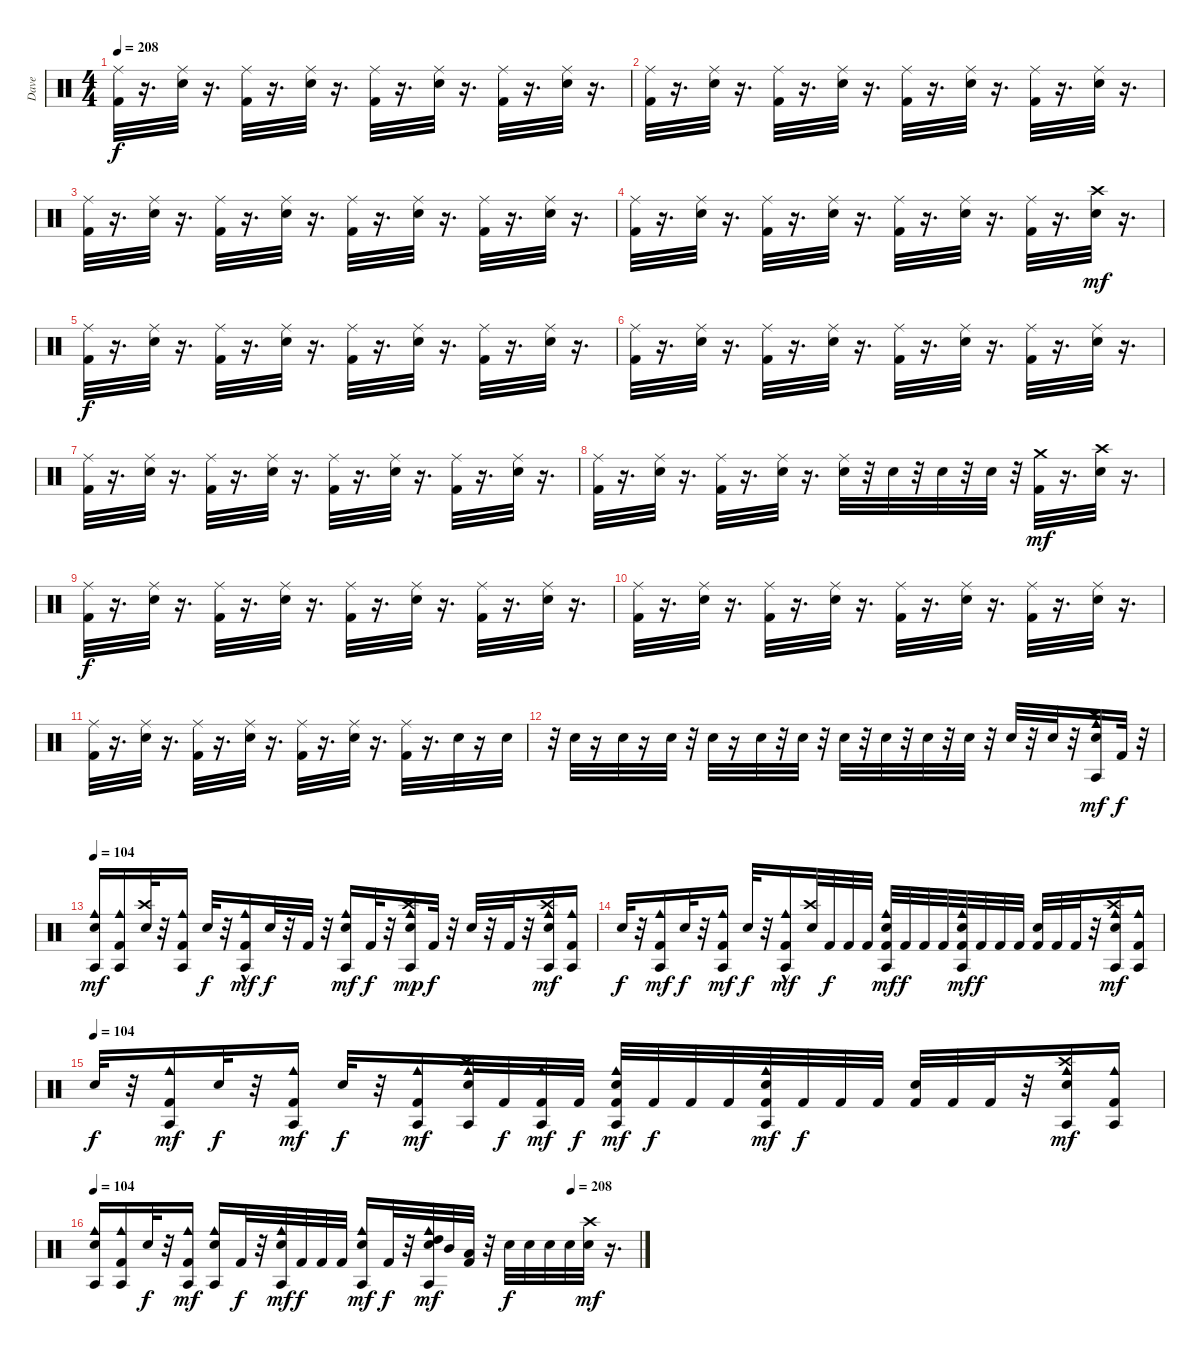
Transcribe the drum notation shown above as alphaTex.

\track ("Dave" "Dave") {instrument percussion}
\staff {score}
\articulation defaults
\ts (4 4)
\tempo 208
\clef neutral
\ks c
("Kick (hit) 2" "Ride (middle)").32{dy f} r.16{d} ("Snare (hit) 2" "Ride (middle)").32 r.16{d} ("Kick (hit) 2" "Ride (middle)").32 r.16{d} ("Snare (hit) 2" "Ride (middle)").32 r.16{d} ("Kick (hit) 2" "Ride (middle)").32 r.16{d} ("Snare (hit) 2" "Ride (middle)").32 r.16{d} ("Kick (hit) 2" "Ride (middle)").32 r.16{d} ("Snare (hit) 2" "Ride (middle)").32 r.16{d} |
("Kick (hit) 2" "Ride (middle)").32 r.16{d} ("Snare (hit) 2" "Ride (middle)").32 r.16{d} ("Kick (hit) 2" "Ride (middle)").32 r.16{d} ("Snare (hit) 2" "Ride (middle)").32 r.16{d} ("Kick (hit) 2" "Ride (middle)").32 r.16{d} ("Snare (hit) 2" "Ride (middle)").32 r.16{d} ("Kick (hit) 2" "Ride (middle)").32 r.16{d} ("Snare (hit) 2" "Ride (middle)").32 r.16{d} |
("Kick (hit) 2" "Ride (middle)").32 r.16{d} ("Snare (hit) 2" "Ride (middle)").32 r.16{d} ("Kick (hit) 2" "Ride (middle)").32 r.16{d} ("Snare (hit) 2" "Ride (middle)").32 r.16{d} ("Kick (hit) 2" "Ride (middle)").32 r.16{d} ("Snare (hit) 2" "Ride (middle)").32 r.16{d} ("Kick (hit) 2" "Ride (middle)").32 r.16{d} ("Snare (hit) 2" "Ride (middle)").32 r.16{d} |
("Kick (hit) 2" "Ride (middle)").32 r.16{d} ("Snare (hit) 2" "Ride (middle)").32 r.16{d} ("Kick (hit) 2" "Ride (middle)").32 r.16{d} ("Snare (hit) 2" "Ride (middle)").32 r.16{d} ("Kick (hit) 2" "Ride (middle)").32 r.16{d} ("Snare (hit) 2" "Ride (middle)").32 r.16{d} ("Kick (hit) 2" "Ride (middle)").32 r.16{d} ("Snare (hit) 2" "Crash high (hit)").32{dy mf} r.16{d} |
("Kick (hit) 2" "Ride (middle)").32{dy f} r.16{d} ("Snare (hit) 2" "Ride (middle)").32 r.16{d} ("Kick (hit) 2" "Ride (middle)").32 r.16{d} ("Snare (hit) 2" "Ride (middle)").32 r.16{d} ("Kick (hit) 2" "Ride (middle)").32 r.16{d} ("Snare (hit) 2" "Ride (middle)").32 r.16{d} ("Kick (hit) 2" "Ride (middle)").32 r.16{d} ("Snare (hit) 2" "Ride (middle)").32 r.16{d} |
("Kick (hit) 2" "Ride (middle)").32 r.16{d} ("Snare (hit) 2" "Ride (middle)").32 r.16{d} ("Kick (hit) 2" "Ride (middle)").32 r.16{d} ("Snare (hit) 2" "Ride (middle)").32 r.16{d} ("Kick (hit) 2" "Ride (middle)").32 r.16{d} ("Snare (hit) 2" "Ride (middle)").32 r.16{d} ("Kick (hit) 2" "Ride (middle)").32 r.16{d} ("Snare (hit) 2" "Ride (middle)").32 r.16{d} |
("Kick (hit) 2" "Ride (middle)").32 r.16{d} ("Snare (hit) 2" "Ride (middle)").32 r.16{d} ("Kick (hit) 2" "Ride (middle)").32 r.16{d} ("Snare (hit) 2" "Ride (middle)").32 r.16{d} ("Kick (hit) 2" "Ride (middle)").32 r.16{d} ("Snare (hit) 2" "Ride (middle)").32 r.16{d} ("Kick (hit) 2" "Ride (middle)").32 r.16{d} ("Snare (hit) 2" "Ride (middle)").32 r.16{d} |
("Kick (hit) 2" "Ride (middle)").32 r.16{d} ("Snare (hit) 2" "Ride (middle)").32 r.16{d} ("Kick (hit) 2" "Ride (middle)").32 r.16{d} ("Snare (hit) 2" "Ride (middle)").32 r.16{d} ("Snare (hit) 2" "Ride (middle)").32 r.32 "Snare (hit) 2".32 r.32 "Snare (hit) 2".32 r.32 "Snare (hit) 2".32 r.32 ("Kick (hit) 2" "Crash medium (hit)").32{dy mf} r.16{d} ("Snare (hit) 2" "Crash high (hit)").32 r.16{d} |
("Kick (hit) 2" "Ride (middle)").32{dy f} r.16{d} ("Snare (hit) 2" "Ride (middle)").32 r.16{d} ("Kick (hit) 2" "Ride (middle)").32 r.16{d} ("Snare (hit) 2" "Ride (middle)").32 r.16{d} ("Kick (hit) 2" "Ride (middle)").32 r.16{d} ("Snare (hit) 2" "Ride (middle)").32 r.16{d} ("Kick (hit) 2" "Ride (middle)").32 r.16{d} ("Snare (hit) 2" "Ride (middle)").32 r.16{d} |
("Kick (hit) 2" "Ride (middle)").32 r.16{d} ("Snare (hit) 2" "Ride (middle)").32 r.16{d} ("Kick (hit) 2" "Ride (middle)").32 r.16{d} ("Snare (hit) 2" "Ride (middle)").32 r.16{d} ("Kick (hit) 2" "Ride (middle)").32 r.16{d} ("Snare (hit) 2" "Ride (middle)").32 r.16{d} ("Kick (hit) 2" "Ride (middle)").32 r.16{d} ("Snare (hit) 2" "Ride (middle)").32 r.16{d} |
("Kick (hit) 2" "Ride (middle)").32 r.16{d} ("Snare (hit) 2" "Ride (middle)").32 r.16{d} ("Kick (hit) 2" "Ride (middle)").32 r.16{d} ("Snare (hit) 2" "Ride (middle)").32 r.16{d} ("Kick (hit) 2" "Ride (middle)").32 r.16{d} ("Snare (hit) 2" "Ride (middle)").32 r.16{d} ("Kick (hit) 2" "Ride (middle)").32 r.16{d} "Snare (hit) 2".32 r.16 "Snare (hit) 2".32 |
r.32 "Snare (hit) 2".32 r.16 "Snare (hit) 2".32 r.16 "Snare (hit) 2".32 r.32 "Snare (hit) 2".32 r.16 "Snare (hit) 2".32 r.32 "Snare (hit) 2".32 r.32 "Snare (hit) 2".32 r.32 "Snare (hit) 2".32 r.32 "Snare (hit) 2".32 r.32 "Snare (hit) 2".32 r.32 "Snare (hit) 2".32 r.32 "Snare (hit) 2".32 r.32 ("Cowbell medium (hit)" "Agogo tow (hit)" "Snare (hit) 2" "Crash high (hit)").16{dy mf} "Kick (hit) 2".32{dy f} r.32 |
\tempo 104
("Cowbell medium (hit)" "Agogo tow (hit)" "Snare (hit) 2").16{dy mf} ("Cowbell medium (hit)" "Agogo tow (hit)" "Kick (hit) 2").16 ("Snare (hit) 2" "Crash high (hit)").32 r.32 ("Cowbell medium (hit)" "Agogo tow (hit)" "Kick (hit) 2").16 "Snare (hit) 2".32{dy f} r.32 ("Cowbell medium (hit)"{hac} "Agogo tow (hit)"{hac} "Kick (hit) 2").16{dy mf} "Snare (hit) 2".32{dy f} r.32 "Kick (hit) 2".32 r.32 ("Cowbell medium (hit)" "Agogo tow (hit)" "Snare (hit) 2").16{dy mf} "Kick (hit) 2".32{dy f} r.32 ("Cowbell medium (hit)" "Agogo tow (hit)" "Snare (hit) 2" "Crash high (hit)").16{dy mp} "Kick (hit) 2".32{dy f} r.32 "Snare (hit) 2".32 r.32 "Kick (hit) 2".32 r.32 ("Cowbell medium (hit)" "Agogo tow (hit)" "Snare (hit) 2" "Crash high (hit)").16{dy mf} ("Cowbell medium (hit)" "Agogo tow (hit)" "Kick (hit) 2").16 |
"Snare (hit) 2".32{dy f} r.32 ("Cowbell medium (hit)" "Agogo tow (hit)" "Kick (hit) 2").16{dy mf} "Snare (hit) 2".32{dy f} r.32 ("Cowbell medium (hit)" "Agogo tow (hit)" "Kick (hit) 2").16{dy mf} "Snare (hit) 2".32{dy f} r.32 ("Cowbell medium (hit)"{hac} "Agogo tow (hit)"{hac} "Kick (hit) 2").16{dy mf} ("Snare (hit) 2" "Crash high (hit)").32 "Kick (hit) 2".32{dy f} "Kick (hit) 2".32 "Kick (hit) 2".32 ("Cowbell medium (hit)" "Agogo tow (hit)" "Kick (hit) 2" "Snare (hit) 2").32{dy mf} "Kick (hit) 2".32{dy f} "Kick (hit) 2".32 "Kick (hit) 2".32 ("Cowbell medium (hit)" "Agogo tow (hit)" "Kick (hit) 2" "Snare (hit) 2").32{dy mf} "Kick (hit) 2".32{dy f} "Kick (hit) 2".32 "Kick (hit) 2".32 ("Kick (hit) 2" "Snare (hit) 2").32 "Kick (hit) 2".32 "Kick (hit) 2".32 r.32 ("Cowbell medium (hit)" "Agogo tow (hit)" "Snare (hit) 2" "Crash high (hit)").16{dy mf} ("Cowbell medium (hit)" "Agogo tow (hit)" "Kick (hit) 2").16 |
\tempo (104)
"Snare (hit) 2".32{dy f} r.32 ("Cowbell medium (hit)" "Agogo tow (hit)" "Kick (hit) 2").16{dy mf} "Snare (hit) 2".32{dy f} r.32 ("Cowbell medium (hit)" "Agogo tow (hit)" "Kick (hit) 2").16{dy mf} "Snare (hit) 2".32{dy f} r.32 ("Cowbell medium (hit)" "Agogo tow (hit)" "Kick (hit) 2").16{dy mf} ("Cowbell medium (hit)" "Agogo tow (hit)" "Snare (hit) 2" "Crash high (hit)").32 "Kick (hit) 2".32{dy f} ("Cowbell medium (hit)" "Agogo tow (hit)" "Kick (hit) 2").32{dy mf} "Kick (hit) 2".32{dy f} ("Cowbell medium (hit)" "Agogo tow (hit)" "Kick (hit) 2" "Snare (hit) 2").32{dy mf} "Kick (hit) 2".32{dy f} "Kick (hit) 2".32 "Kick (hit) 2".32 ("Cowbell medium (hit)" "Agogo tow (hit)" "Kick (hit) 2" "Snare (hit) 2").32{dy mf} "Kick (hit) 2".32{dy f} "Kick (hit) 2".32 "Kick (hit) 2".32 ("Kick (hit) 2" "Snare (hit) 2").32 "Kick (hit) 2".32 "Kick (hit) 2".32 r.32 ("Cowbell medium (hit)" "Agogo tow (hit)" "Snare (hit) 2" "Crash high (hit)").16{dy mf} ("Cowbell medium (hit)" "Agogo tow (hit)" "Kick (hit) 2").16 |
\tempo 104
\tempo (208 0.875)
("Cowbell medium (hit)" "Agogo tow (hit)" "Snare (hit) 2").16 ("Cowbell medium (hit)" "Agogo tow (hit)" "Kick (hit) 2").16 "Snare (hit) 2".32{dy f} r.32 ("Cowbell medium (hit)" "Agogo tow (hit)" "Kick (hit) 2").16{dy mf} ("Cowbell medium (hit)" "Agogo tow (hit)" "Snare (hit) 2").16 "Kick (hit) 2".32{dy f} r.32 ("Cowbell medium (hit)" "Agogo tow (hit)" "Snare (hit) 2").32{dy mf} "Kick (hit) 2".32{dy f} "Kick (hit) 2".32 "Kick (hit) 2".32 ("Cowbell medium (hit)" "Agogo tow (hit)" "Snare (hit) 2").16{dy mf} "Kick (hit) 2".32{dy f} r.32 ("Cowbell medium (hit)" "Agogo tow (hit)" "Snare (hit) 2" "High Tom (hit)").32{dy mf} "Mid Tom (hit)".32 ("Kick (hit) 2" "Low Tom (hit)").32 r.32 "Snare (hit) 2".32{dy f} "Snare (hit) 2".32 "Snare (hit) 2".32 "Snare (hit) 2".32 ("Snare (hit) 2" "Crash high (hit)").32{dy mf} r.16{d}
